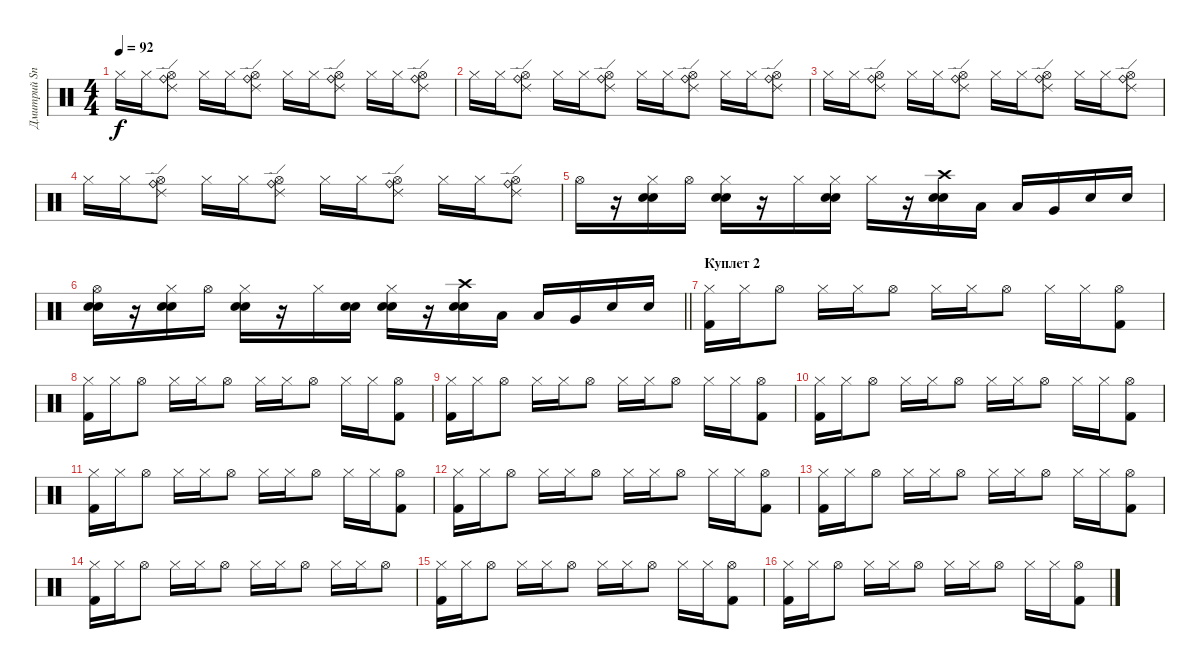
\track ("Дмитрий Snake Хакимов" "Дмитрий Sn") {instrument percussion}
\staff {score}
\articulation defaults
\ts (4 4)
\tempo 92
\clef neutral
\ks c "Hi-Hat (closed)".16{dy f} "Hi-Hat (closed)".16
("Hi-Hat (open)" "Ride (bell)" "Ride (edge) 2").8 "Hi-Hat (closed)".16 "Hi-Hat (closed)".16 ("Hi-Hat (open)" "Ride (bell)" "Ride (edge) 2").8 "Hi-Hat (closed)".16 "Hi-Hat (closed)".16 ("Hi-Hat (open)" "Ride (bell)" "Ride (edge) 2").8 "Hi-Hat (closed)".16 "Hi-Hat (closed)".16 ("Hi-Hat (open)" "Ride (bell)" "Ride (edge) 2").8 |
"Hi-Hat (closed)".16 "Hi-Hat (closed)".16 ("Hi-Hat (open)" "Ride (bell)" "Ride (edge) 2").8 "Hi-Hat (closed)".16 "Hi-Hat (closed)".16 ("Hi-Hat (open)" "Ride (bell)" "Ride (edge) 2").8 "Hi-Hat (closed)".16 "Hi-Hat (closed)".16 ("Hi-Hat (open)" "Ride (bell)" "Ride (edge) 2").8 "Hi-Hat (closed)".16 "Hi-Hat (closed)".16 ("Hi-Hat (open)" "Ride (bell)" "Ride (edge) 2").8 |
"Hi-Hat (closed)".16 "Hi-Hat (closed)".16 ("Hi-Hat (open)" "Ride (bell)" "Ride (edge) 2").8 "Hi-Hat (closed)".16 "Hi-Hat (closed)".16 ("Hi-Hat (open)" "Ride (bell)" "Ride (edge) 2").8 "Hi-Hat (closed)".16 "Hi-Hat (closed)".16 ("Hi-Hat (open)" "Ride (bell)" "Ride (edge) 2").8 "Hi-Hat (closed)".16 "Hi-Hat (closed)".16 ("Hi-Hat (open)" "Ride (bell)" "Ride (edge) 2").8 |
"Hi-Hat (closed)".16 "Hi-Hat (closed)".16 ("Hi-Hat (open)" "Ride (bell)" "Ride (edge) 2").8 "Hi-Hat (closed)".16 "Hi-Hat (closed)".16 ("Hi-Hat (open)" "Ride (bell)" "Ride (edge) 2").8 "Hi-Hat (closed)".16 "Hi-Hat (closed)".16 ("Hi-Hat (open)" "Ride (bell)" "Ride (edge) 2").8 "Hi-Hat (closed)".16 "Hi-Hat (closed)".16 ("Hi-Hat (open)" "Ride (bell)" "Ride (edge) 2").8 |
"Hi-Hat (open)".16 r.16 ("Hi-Hat (closed)" "Snare (hit) 2" "Electric Snare (hit)").16 "Hi-Hat (open)".16 ("Hi-Hat (closed)" "Snare (hit) 2" "Electric Snare (hit)").16 r.16 "Hi-Hat (closed)".16 ("Hi-Hat (closed)" "Snare (hit) 2" "Electric Snare (hit)").16 "Hi-Hat (closed)".16 r.16 ("Crash high (hit)" "Snare (hit) 2" "Electric Snare (hit)").16 "Low Tom (hit)".16 "Low Tom (hit)".16 "Very Low Tom (hit)".16 "Electric Snare (hit)".16 "Electric Snare (hit)".16 |
\barLineRight lightlight
("Hi-Hat (open)" "Snare (hit) 2" "Electric Snare (hit)").16 r.16 ("Hi-Hat (closed)" "Snare (hit) 2" "Electric Snare (hit)").16 "Hi-Hat (open)".16 ("Hi-Hat (closed)" "Snare (hit) 2" "Electric Snare (hit)").16 r.16 "Hi-Hat (closed)".16 ("Snare (hit) 2" "Electric Snare (hit)").16 ("Hi-Hat (closed)" "Snare (hit) 2" "Electric Snare (hit)").16 r.16 ("Crash high (hit)" "Snare (hit) 2" "Electric Snare (hit)").16 "Low Tom (hit)".16 "Low Tom (hit)".16 "Very Low Tom (hit)".16 "Electric Snare (hit)".16 "Electric Snare (hit)".16 |
\section ("" "Куплет 2")
("Hi-Hat (closed)" "Kick (hit) 2").16 "Hi-Hat (closed)".16 "Hi-Hat (open)".8 "Hi-Hat (closed)".16 "Hi-Hat (closed)".16 "Hi-Hat (open)".8 "Hi-Hat (closed)".16 "Hi-Hat (closed)".16 "Hi-Hat (open)".8 "Hi-Hat (closed)".16 "Hi-Hat (closed)".16 ("Hi-Hat (open)" "Kick (hit) 2").8 |
("Hi-Hat (closed)" "Kick (hit) 2").16 "Hi-Hat (closed)".16 "Hi-Hat (open)".8 "Hi-Hat (closed)".16 "Hi-Hat (closed)".16 "Hi-Hat (open)".8 "Hi-Hat (closed)".16 "Hi-Hat (closed)".16 "Hi-Hat (open)".8 "Hi-Hat (closed)".16 "Hi-Hat (closed)".16 ("Hi-Hat (open)" "Kick (hit) 2").8 |
("Hi-Hat (closed)" "Kick (hit) 2").16 "Hi-Hat (closed)".16 "Hi-Hat (open)".8 "Hi-Hat (closed)".16 "Hi-Hat (closed)".16 "Hi-Hat (open)".8 "Hi-Hat (closed)".16 "Hi-Hat (closed)".16 "Hi-Hat (open)".8 "Hi-Hat (closed)".16 "Hi-Hat (closed)".16 ("Hi-Hat (open)" "Kick (hit) 2").8 |
("Hi-Hat (closed)" "Kick (hit) 2").16 "Hi-Hat (closed)".16 "Hi-Hat (open)".8 "Hi-Hat (closed)".16 "Hi-Hat (closed)".16 "Hi-Hat (open)".8 "Hi-Hat (closed)".16 "Hi-Hat (closed)".16 "Hi-Hat (open)".8 "Hi-Hat (closed)".16 "Hi-Hat (closed)".16 ("Hi-Hat (open)" "Kick (hit) 2").8 |
("Hi-Hat (closed)" "Kick (hit) 2").16 "Hi-Hat (closed)".16 "Hi-Hat (open)".8 "Hi-Hat (closed)".16 "Hi-Hat (closed)".16 "Hi-Hat (open)".8 "Hi-Hat (closed)".16 "Hi-Hat (closed)".16 "Hi-Hat (open)".8 "Hi-Hat (closed)".16 "Hi-Hat (closed)".16 ("Hi-Hat (open)" "Kick (hit) 2").8 |
("Hi-Hat (closed)" "Kick (hit) 2").16 "Hi-Hat (closed)".16 "Hi-Hat (open)".8 "Hi-Hat (closed)".16 "Hi-Hat (closed)".16 "Hi-Hat (open)".8 "Hi-Hat (closed)".16 "Hi-Hat (closed)".16 "Hi-Hat (open)".8 "Hi-Hat (closed)".16 "Hi-Hat (closed)".16 ("Hi-Hat (open)" "Kick (hit) 2").8 |
("Hi-Hat (closed)" "Kick (hit) 2").16 "Hi-Hat (closed)".16 "Hi-Hat (open)".8 "Hi-Hat (closed)".16 "Hi-Hat (closed)".16 "Hi-Hat (open)".8 "Hi-Hat (closed)".16 "Hi-Hat (closed)".16 "Hi-Hat (open)".8 "Hi-Hat (closed)".16 "Hi-Hat (closed)".16 ("Hi-Hat (open)" "Kick (hit) 2").8 |
("Hi-Hat (closed)" "Kick (hit) 2").16 "Hi-Hat (closed)".16 "Hi-Hat (open)".8 "Hi-Hat (closed)".16 "Hi-Hat (closed)".16 "Hi-Hat (open)".8 "Hi-Hat (closed)".16 "Hi-Hat (closed)".16 "Hi-Hat (open)".8 "Hi-Hat (closed)".16 "Hi-Hat (closed)".16 "Hi-Hat (open)".8 |
("Hi-Hat (closed)" "Kick (hit) 2").16 "Hi-Hat (closed)".16 "Hi-Hat (open)".8 "Hi-Hat (closed)".16 "Hi-Hat (closed)".16 "Hi-Hat (open)".8 "Hi-Hat (closed)".16 "Hi-Hat (closed)".16 "Hi-Hat (open)".8 "Hi-Hat (closed)".16 "Hi-Hat (closed)".16 ("Hi-Hat (open)" "Kick (hit) 2").8 |
("Hi-Hat (closed)" "Kick (hit) 2").16 "Hi-Hat (closed)".16 "Hi-Hat (open)".8 "Hi-Hat (closed)".16 "Hi-Hat (closed)".16 "Hi-Hat (open)".8 "Hi-Hat (closed)".16 "Hi-Hat (closed)".16 "Hi-Hat (open)".8 "Hi-Hat (closed)".16 "Hi-Hat (closed)".16 ("Hi-Hat (open)" "Kick (hit) 2").8
